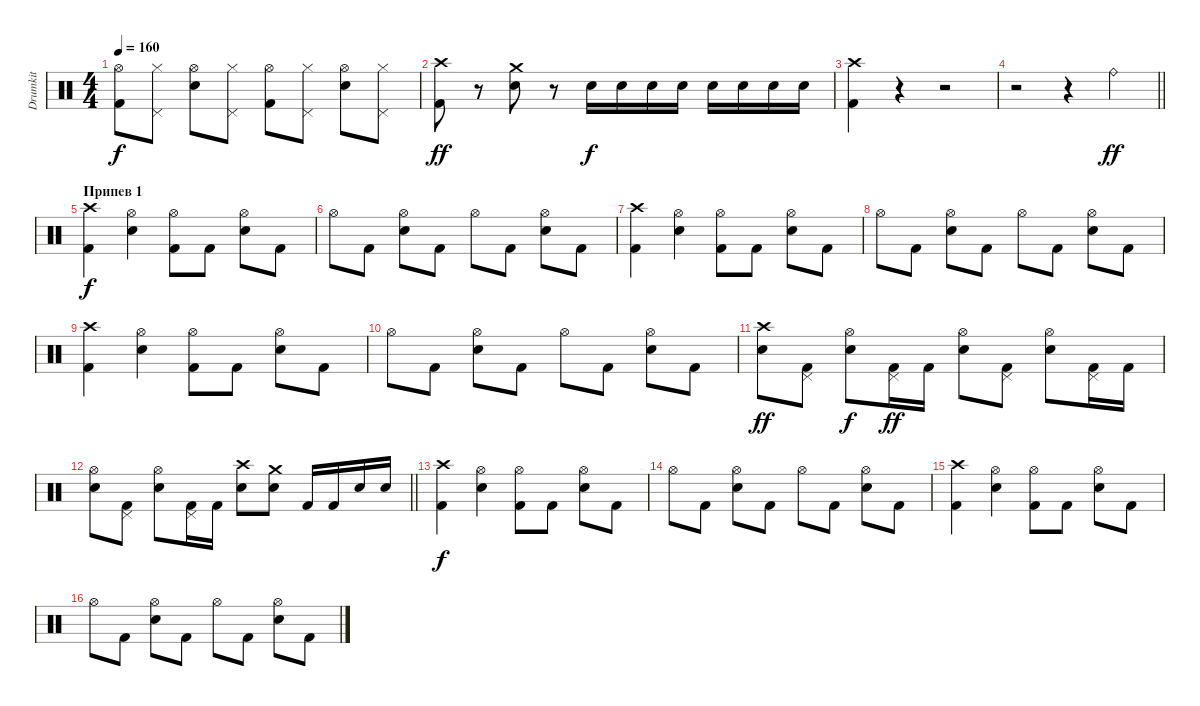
\track ("Drumkit" "Drumkit") {instrument percussion}
\staff {score}
\articulation defaults
\ts (4 4)
\tempo 160
\clef neutral
\ks c
("Hi-Hat (open)" "Kick (hit) 2").8{dy f} ("Hi-Hat (closed)" "Pedal Hi-Hat (hit)").8 ("Hi-Hat (open)" "Electric Snare (hit)").8 ("Hi-Hat (closed)" "Pedal Hi-Hat (hit)").8 ("Hi-Hat (open)" "Kick (hit) 2").8 ("Hi-Hat (closed)" "Pedal Hi-Hat (hit)").8 ("Hi-Hat (open)" "Electric Snare (hit)").8 ("Hi-Hat (closed)" "Pedal Hi-Hat (hit)").8 |
("Crash high (hit)" "Kick (hit) 2").8{dy ff} r.8 ("Crash medium (hit)" "Electric Snare (hit)").8 r.8 "Electric Snare (hit)".16{dy f} "Electric Snare (hit)".16 "Electric Snare (hit)".16 "Electric Snare (hit)".16 "Electric Snare (hit)".16 "Electric Snare (hit)".16 "Electric Snare (hit)".16 "Electric Snare (hit)".16 |
("Crash high (hit)" "Kick (hit) 2").4 r.4 r.2 |
\barLineRight lightlight
r.2 r.4 "Ride (bell)".4{dy ff} |
\section ("" "Припев 1")
("Crash high (hit)" "Kick (hit) 2").4{dy f} ("Hi-Hat (open)" "Electric Snare (hit)").4 ("Hi-Hat (open)" "Kick (hit) 2").8 "Kick (hit) 2".8 ("Hi-Hat (open)" "Electric Snare (hit)").8 "Kick (hit) 2".8 |
"Hi-Hat (open)".8 "Kick (hit) 2".8 ("Hi-Hat (open)" "Electric Snare (hit)").8 "Kick (hit) 2".8 "Hi-Hat (open)".8 "Kick (hit) 2".8 ("Hi-Hat (open)" "Electric Snare (hit)").8 "Kick (hit) 2".8 |
("Crash high (hit)" "Kick (hit) 2").4 ("Hi-Hat (open)" "Electric Snare (hit)").4 ("Hi-Hat (open)" "Kick (hit) 2").8 "Kick (hit) 2".8 ("Hi-Hat (open)" "Electric Snare (hit)").8 "Kick (hit) 2".8 |
"Hi-Hat (open)".8 "Kick (hit) 2".8 ("Hi-Hat (open)" "Electric Snare (hit)").8 "Kick (hit) 2".8 "Hi-Hat (open)".8 "Kick (hit) 2".8 ("Hi-Hat (open)" "Electric Snare (hit)").8 "Kick (hit) 2".8 |
("Crash high (hit)" "Kick (hit) 2").4 ("Hi-Hat (open)" "Electric Snare (hit)").4 ("Hi-Hat (open)" "Kick (hit) 2").8 "Kick (hit) 2".8 ("Hi-Hat (open)" "Electric Snare (hit)").8 "Kick (hit) 2".8 |
"Hi-Hat (open)".8 "Kick (hit) 2".8 ("Hi-Hat (open)" "Electric Snare (hit)").8 "Kick (hit) 2".8 "Hi-Hat (open)".8 "Kick (hit) 2".8 ("Hi-Hat (open)" "Electric Snare (hit)").8 "Kick (hit) 2".8 |
("Crash high (hit)" "Electric Snare (hit)").8{dy ff} ("Pedal Hi-Hat (hit)" "Kick (hit) 2").8 ("Hi-Hat (open)" "Electric Snare (hit)").8{dy f} ("Pedal Hi-Hat (hit)" "Kick (hit) 2").16{dy ff} "Kick (hit) 2".16 ("Hi-Hat (open)" "Electric Snare (hit)").8 ("Pedal Hi-Hat (hit)" "Kick (hit) 2").8 ("Hi-Hat (open)" "Electric Snare (hit)").8 ("Pedal Hi-Hat (hit)" "Kick (hit) 2").16 "Kick (hit) 2".16 |
\barLineRight lightlight
("Hi-Hat (open)" "Electric Snare (hit)").8 ("Pedal Hi-Hat (hit)" "Kick (hit) 2").8 ("Hi-Hat (open)" "Electric Snare (hit)").8 ("Pedal Hi-Hat (hit)" "Kick (hit) 2").16 "Kick (hit) 2".16 ("Crash high (hit)" "Electric Snare (hit)").8 ("Crash medium (hit)" "Electric Snare (hit)").8 "Kick (hit) 2".16 "Kick (hit) 2".16 "Electric Snare (hit)".16 "Electric Snare (hit)".16 |
("Crash high (hit)" "Kick (hit) 2").4{dy f} ("Hi-Hat (open)" "Electric Snare (hit)").4 ("Hi-Hat (open)" "Kick (hit) 2").8 "Kick (hit) 2".8 ("Hi-Hat (open)" "Electric Snare (hit)").8 "Kick (hit) 2".8 |
"Hi-Hat (open)".8 "Kick (hit) 2".8 ("Hi-Hat (open)" "Electric Snare (hit)").8 "Kick (hit) 2".8 "Hi-Hat (open)".8 "Kick (hit) 2".8 ("Hi-Hat (open)" "Electric Snare (hit)").8 "Kick (hit) 2".8 |
("Crash high (hit)" "Kick (hit) 2").4 ("Hi-Hat (open)" "Electric Snare (hit)").4 ("Hi-Hat (open)" "Kick (hit) 2").8 "Kick (hit) 2".8 ("Hi-Hat (open)" "Electric Snare (hit)").8 "Kick (hit) 2".8 |
"Hi-Hat (open)".8 "Kick (hit) 2".8 ("Hi-Hat (open)" "Electric Snare (hit)").8 "Kick (hit) 2".8 "Hi-Hat (open)".8 "Kick (hit) 2".8 ("Hi-Hat (open)" "Electric Snare (hit)").8 "Kick (hit) 2".8
